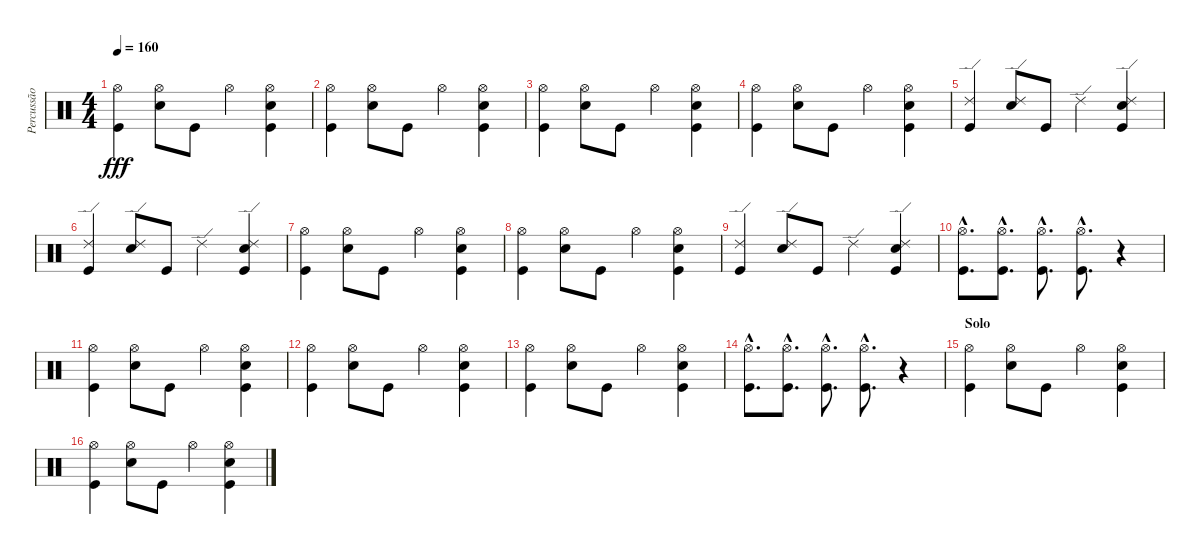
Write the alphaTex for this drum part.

\track ("Percussão" "Percussão") {instrument percussion}
\staff {score}
\articulation defaults
\ts (4 4)
\tempo 160
\clef neutral
\ks c
("Hi-Hat (open)" "Kick (hit)").4{dy fff} ("Hi-Hat (open)" "Snare (hit) 2").8 "Kick (hit)".8 "Hi-Hat (open)".4 ("Hi-Hat (open)" "Snare (hit) 2" "Kick (hit)").4 |
("Hi-Hat (open)" "Kick (hit)").4 ("Hi-Hat (open)" "Snare (hit) 2").8 "Kick (hit)".8 "Hi-Hat (open)".4 ("Hi-Hat (open)" "Snare (hit) 2" "Kick (hit)").4 |
("Hi-Hat (open)" "Kick (hit)").4 ("Hi-Hat (open)" "Snare (hit) 2").8 "Kick (hit)".8 "Hi-Hat (open)".4 ("Hi-Hat (open)" "Snare (hit) 2" "Kick (hit)").4 |
("Hi-Hat (open)" "Kick (hit)").4 ("Hi-Hat (open)" "Snare (hit) 2").8 "Kick (hit)".8 "Hi-Hat (open)".4 ("Hi-Hat (open)" "Snare (hit) 2" "Kick (hit)").4 |
("Ride (edge) 2" "Kick (hit)").4 ("Ride (edge) 2" "Snare (hit) 2").8 "Kick (hit)".8 "Ride (edge) 2".4 ("Ride (edge) 2" "Snare (hit) 2" "Kick (hit)").4 |
("Ride (edge) 2" "Kick (hit)").4 ("Ride (edge) 2" "Snare (hit) 2").8 "Kick (hit)".8 "Ride (edge) 2".4 ("Ride (edge) 2" "Snare (hit) 2" "Kick (hit)").4 |
("Hi-Hat (open)" "Kick (hit)").4 ("Hi-Hat (open)" "Snare (hit) 2").8 "Kick (hit)".8 "Hi-Hat (open)".4 ("Hi-Hat (open)" "Snare (hit) 2" "Kick (hit)").4 |
("Hi-Hat (open)" "Kick (hit)").4 ("Hi-Hat (open)" "Snare (hit) 2").8 "Kick (hit)".8 "Hi-Hat (open)".4 ("Hi-Hat (open)" "Snare (hit) 2" "Kick (hit)").4 |
("Ride (edge) 2" "Kick (hit)").4 ("Ride (edge) 2" "Snare (hit) 2").8 "Kick (hit)".8 "Ride (edge) 2".4 ("Ride (edge) 2" "Snare (hit) 2" "Kick (hit)").4 |
("Hi-Hat (open)"{hac} "Kick (hit)"{hac}).8{d} ("Hi-Hat (open)"{hac} "Kick (hit)"{hac}).8{d} ("Hi-Hat (open)"{hac} "Kick (hit)"{hac}).8{d} ("Hi-Hat (open)"{hac} "Kick (hit)"{hac}).8{d} r.4 |
("Hi-Hat (open)" "Kick (hit)").4 ("Hi-Hat (open)" "Snare (hit) 2").8 "Kick (hit)".8 "Hi-Hat (open)".4 ("Hi-Hat (open)" "Snare (hit) 2" "Kick (hit)").4 |
("Hi-Hat (open)" "Kick (hit)").4 ("Hi-Hat (open)" "Snare (hit) 2").8 "Kick (hit)".8 "Hi-Hat (open)".4 ("Hi-Hat (open)" "Snare (hit) 2" "Kick (hit)").4 |
("Hi-Hat (open)" "Kick (hit)").4 ("Hi-Hat (open)" "Snare (hit) 2").8 "Kick (hit)".8 "Hi-Hat (open)".4 ("Hi-Hat (open)" "Snare (hit) 2" "Kick (hit)").4 |
("Hi-Hat (open)"{hac} "Kick (hit)"{hac}).8{d} ("Hi-Hat (open)"{hac} "Kick (hit)"{hac}).8{d} ("Hi-Hat (open)"{hac} "Kick (hit)"{hac}).8{d} ("Hi-Hat (open)"{hac} "Kick (hit)"{hac}).8{d} r.4 |
\section ("" "Solo")
("Hi-Hat (open)" "Kick (hit)").4 ("Hi-Hat (open)" "Snare (hit) 2").8 "Kick (hit)".8 "Hi-Hat (open)".4 ("Hi-Hat (open)" "Snare (hit) 2" "Kick (hit)").4 |
("Hi-Hat (open)" "Kick (hit)").4 ("Hi-Hat (open)" "Snare (hit) 2").8 "Kick (hit)".8 "Hi-Hat (open)".4 ("Hi-Hat (open)" "Snare (hit) 2" "Kick (hit)").4
